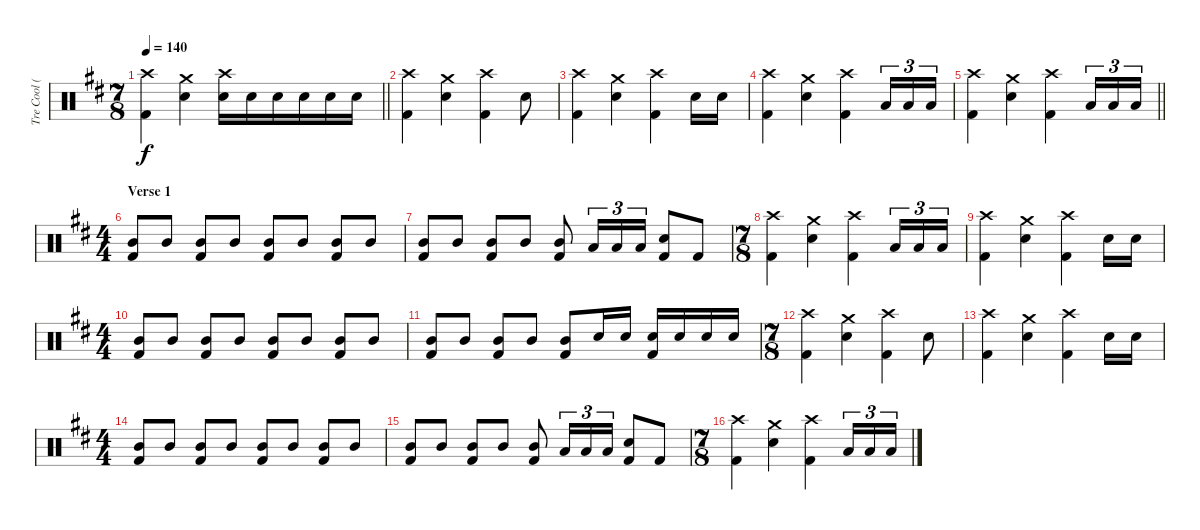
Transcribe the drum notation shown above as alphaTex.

\track ("Tre Cool (Drums)" "Tre Cool (") {instrument percussion}
\staff {score}
\articulation defaults
\ts (7 8)
\tempo 140
\clef neutral
\barLineRight lightlight
\ks d
("Crash high (hit)" "Kick (hit) 2").4{dy f} ("Crash medium (hit)" "Electric Snare (hit)").4 ("Crash high (hit)" "Electric Snare (hit)").16 "Electric Snare (hit)".16 "Electric Snare (hit)".16 "Electric Snare (hit)".16 "Electric Snare (hit)".16 "Electric Snare (hit)".16 |
("Crash high (hit)" "Kick (hit) 2").4 ("Crash medium (hit)" "Electric Snare (hit)").4 ("Crash high (hit)" "Kick (hit) 2").4 "Electric Snare (hit)".8 |
("Crash high (hit)" "Kick (hit) 2").4 ("Crash medium (hit)" "Electric Snare (hit)").4 ("Crash high (hit)" "Kick (hit) 2").4 "Electric Snare (hit)".16 "Electric Snare (hit)".16 |
("Crash high (hit)" "Kick (hit) 2").4 ("Crash medium (hit)" "Electric Snare (hit)").4 ("Crash high (hit)" "Kick (hit) 2").4 "Low Tom (hit)".16{tu (3 2)} "Low Tom (hit)".16{tu (3 2)} "Low Tom (hit)".16{tu (3 2)} |
\barLineRight lightlight
("Crash high (hit)" "Kick (hit) 2").4 ("Crash medium (hit)" "Electric Snare (hit)").4 ("Crash high (hit)" "Kick (hit) 2").4 "Low Tom (hit)".16{tu (3 2)} "Low Tom (hit)".16{tu (3 2)} "Low Tom (hit)".16{tu (3 2)} |
\ts (4 4)
\section ("" "Verse 1")
("Mid Tom (hit)" "Kick (hit) 2").8 "Mid Tom (hit)".8 ("Mid Tom (hit)" "Kick (hit) 2").8 "Mid Tom (hit)".8 ("Mid Tom (hit)" "Kick (hit) 2").8 "Mid Tom (hit)".8 ("Mid Tom (hit)" "Kick (hit) 2").8 "Mid Tom (hit)".8 |
("Mid Tom (hit)" "Kick (hit) 2").8 "Mid Tom (hit)".8 ("Mid Tom (hit)" "Kick (hit) 2").8 "Mid Tom (hit)".8 ("Mid Tom (hit)" "Kick (hit) 2").8 "Low Tom (hit)".16{tu (3 2)} "Low Tom (hit)".16{tu (3 2)} "Low Tom (hit)".16{tu (3 2)} ("Electric Snare (hit)" "Kick (hit) 2").8 "Kick (hit) 2".8 |
\ts (7 8)
("Crash high (hit)" "Kick (hit) 2").4 ("Crash medium (hit)" "Electric Snare (hit)").4 ("Crash high (hit)" "Kick (hit) 2").4 "Low Tom (hit)".16{tu (3 2)} "Low Tom (hit)".16{tu (3 2)} "Low Tom (hit)".16{tu (3 2)} |
("Crash high (hit)" "Kick (hit) 2").4 ("Crash medium (hit)" "Electric Snare (hit)").4 ("Crash high (hit)" "Kick (hit) 2").4 "Electric Snare (hit)".16 "Electric Snare (hit)".16 |
\ts (4 4)
("Mid Tom (hit)" "Kick (hit) 2").8 "Mid Tom (hit)".8 ("Mid Tom (hit)" "Kick (hit) 2").8 "Mid Tom (hit)".8 ("Mid Tom (hit)" "Kick (hit) 2").8 "Mid Tom (hit)".8 ("Mid Tom (hit)" "Kick (hit) 2").8 "Mid Tom (hit)".8 |
("Mid Tom (hit)" "Kick (hit) 2").8 "Mid Tom (hit)".8 ("Mid Tom (hit)" "Kick (hit) 2").8 "Mid Tom (hit)".8 ("Mid Tom (hit)" "Kick (hit) 2").8 "Electric Snare (hit)".16 "Electric Snare (hit)".16 ("Electric Snare (hit)" "Kick (hit) 2").16 "Electric Snare (hit)".16 "Electric Snare (hit)".16 "Electric Snare (hit)".16 |
\ts (7 8)
("Crash high (hit)" "Kick (hit) 2").4 ("Crash medium (hit)" "Electric Snare (hit)").4 ("Crash high (hit)" "Kick (hit) 2").4 "Electric Snare (hit)".8 |
("Crash high (hit)" "Kick (hit) 2").4 ("Crash medium (hit)" "Electric Snare (hit)").4 ("Crash high (hit)" "Kick (hit) 2").4 "Electric Snare (hit)".16 "Electric Snare (hit)".16 |
\ts (4 4)
("Mid Tom (hit)" "Kick (hit) 2").8 "Mid Tom (hit)".8 ("Mid Tom (hit)" "Kick (hit) 2").8 "Mid Tom (hit)".8 ("Mid Tom (hit)" "Kick (hit) 2").8 "Mid Tom (hit)".8 ("Mid Tom (hit)" "Kick (hit) 2").8 "Mid Tom (hit)".8 |
("Mid Tom (hit)" "Kick (hit) 2").8 "Mid Tom (hit)".8 ("Mid Tom (hit)" "Kick (hit) 2").8 "Mid Tom (hit)".8 ("Mid Tom (hit)" "Kick (hit) 2").8 "Low Tom (hit)".16{tu (3 2)} "Low Tom (hit)".16{tu (3 2)} "Low Tom (hit)".16{tu (3 2)} ("Electric Snare (hit)" "Kick (hit) 2").8 "Kick (hit) 2".8 |
\ts (7 8)
("Crash high (hit)" "Kick (hit) 2").4 ("Crash medium (hit)" "Electric Snare (hit)").4 ("Crash high (hit)" "Kick (hit) 2").4 "Low Tom (hit)".16{tu (3 2)} "Low Tom (hit)".16{tu (3 2)} "Low Tom (hit)".16{tu (3 2)}
